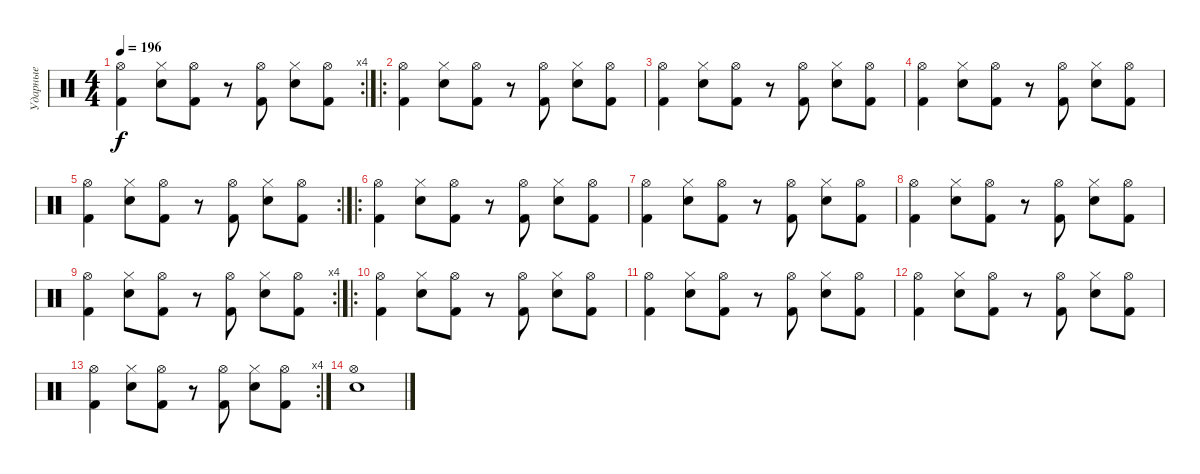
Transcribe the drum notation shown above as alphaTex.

\track ("Ударные" "Ударные") {instrument percussion}
\staff {score}
\articulation defaults
\rc 4
\ts (4 4)
\tempo 196
\clef neutral
\ks c
("Kick (hit) 2" "Hi-Hat (open)").4{dy f} ("Snare (hit) 2" "Hi-Hat (closed)").8 ("Kick (hit) 2" "Hi-Hat (open)").8 r.8 ("Kick (hit) 2" "Hi-Hat (open)").8 ("Snare (hit) 2" "Hi-Hat (closed)").8 ("Kick (hit) 2" "Hi-Hat (open)").8 |
\ro
("Kick (hit) 2" "Hi-Hat (open)").4 ("Snare (hit) 2" "Hi-Hat (closed)").8 ("Kick (hit) 2" "Hi-Hat (open)").8 r.8 ("Kick (hit) 2" "Hi-Hat (open)").8 ("Snare (hit) 2" "Hi-Hat (closed)").8 ("Kick (hit) 2" "Hi-Hat (open)").8 |
("Kick (hit) 2" "Hi-Hat (open)").4 ("Snare (hit) 2" "Hi-Hat (closed)").8 ("Kick (hit) 2" "Hi-Hat (open)").8 r.8 ("Kick (hit) 2" "Hi-Hat (open)").8 ("Snare (hit) 2" "Hi-Hat (closed)").8 ("Kick (hit) 2" "Hi-Hat (open)").8 |
("Kick (hit) 2" "Hi-Hat (open)").4 ("Snare (hit) 2" "Hi-Hat (closed)").8 ("Kick (hit) 2" "Hi-Hat (open)").8 r.8 ("Kick (hit) 2" "Hi-Hat (open)").8 ("Snare (hit) 2" "Hi-Hat (closed)").8 ("Kick (hit) 2" "Hi-Hat (open)").8 |
\rc 2
("Kick (hit) 2" "Hi-Hat (open)").4 ("Snare (hit) 2" "Hi-Hat (closed)").8 ("Kick (hit) 2" "Hi-Hat (open)").8 r.8 ("Kick (hit) 2" "Hi-Hat (open)").8 ("Snare (hit) 2" "Hi-Hat (closed)").8 ("Kick (hit) 2" "Hi-Hat (open)").8 |
\ro
("Kick (hit) 2" "Hi-Hat (open)").4 ("Snare (hit) 2" "Hi-Hat (closed)").8 ("Kick (hit) 2" "Hi-Hat (open)").8 r.8 ("Kick (hit) 2" "Hi-Hat (open)").8 ("Snare (hit) 2" "Hi-Hat (closed)").8 ("Kick (hit) 2" "Hi-Hat (open)").8 |
("Kick (hit) 2" "Hi-Hat (open)").4 ("Snare (hit) 2" "Hi-Hat (closed)").8 ("Kick (hit) 2" "Hi-Hat (open)").8 r.8 ("Kick (hit) 2" "Hi-Hat (open)").8 ("Snare (hit) 2" "Hi-Hat (closed)").8 ("Kick (hit) 2" "Hi-Hat (open)").8 |
("Kick (hit) 2" "Hi-Hat (open)").4 ("Snare (hit) 2" "Hi-Hat (closed)").8 ("Kick (hit) 2" "Hi-Hat (open)").8 r.8 ("Kick (hit) 2" "Hi-Hat (open)").8 ("Snare (hit) 2" "Hi-Hat (closed)").8 ("Kick (hit) 2" "Hi-Hat (open)").8 |
\rc 4
("Kick (hit) 2" "Hi-Hat (open)").4 ("Snare (hit) 2" "Hi-Hat (closed)").8 ("Kick (hit) 2" "Hi-Hat (open)").8 r.8 ("Kick (hit) 2" "Hi-Hat (open)").8 ("Snare (hit) 2" "Hi-Hat (closed)").8 ("Kick (hit) 2" "Hi-Hat (open)").8 |
\ro
("Kick (hit) 2" "Hi-Hat (open)").4 ("Snare (hit) 2" "Hi-Hat (closed)").8 ("Kick (hit) 2" "Hi-Hat (open)").8 r.8 ("Kick (hit) 2" "Hi-Hat (open)").8 ("Snare (hit) 2" "Hi-Hat (closed)").8 ("Kick (hit) 2" "Hi-Hat (open)").8 |
("Kick (hit) 2" "Hi-Hat (open)").4 ("Snare (hit) 2" "Hi-Hat (closed)").8 ("Kick (hit) 2" "Hi-Hat (open)").8 r.8 ("Kick (hit) 2" "Hi-Hat (open)").8 ("Snare (hit) 2" "Hi-Hat (closed)").8 ("Kick (hit) 2" "Hi-Hat (open)").8 |
("Kick (hit) 2" "Hi-Hat (open)").4 ("Snare (hit) 2" "Hi-Hat (closed)").8 ("Kick (hit) 2" "Hi-Hat (open)").8 r.8 ("Kick (hit) 2" "Hi-Hat (open)").8 ("Snare (hit) 2" "Hi-Hat (closed)").8 ("Kick (hit) 2" "Hi-Hat (open)").8 |
\rc 4
("Kick (hit) 2" "Hi-Hat (open)").4 ("Snare (hit) 2" "Hi-Hat (closed)").8 ("Kick (hit) 2" "Hi-Hat (open)").8 r.8 ("Kick (hit) 2" "Hi-Hat (open)").8 ("Snare (hit) 2" "Hi-Hat (closed)").8 ("Kick (hit) 2" "Hi-Hat (open)").8 |
("Snare (hit) 2" "Hi-Hat (open)").1
